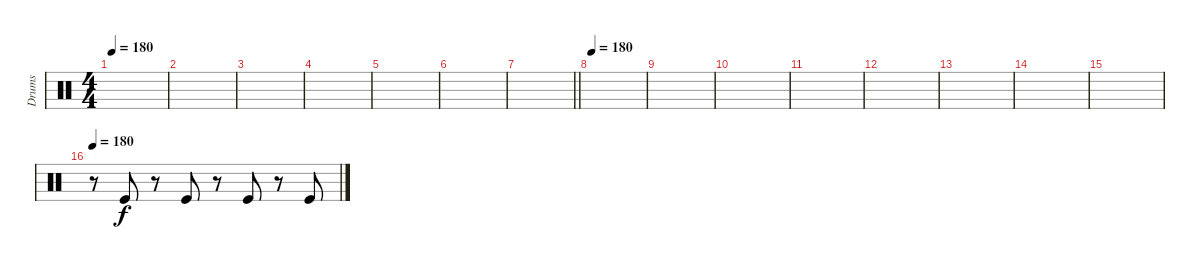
\track ("Drums" "Drums") {instrument percussion}
\staff {score}
\articulation defaults
\ts (4 4)
\tempo 180
\clef neutral
\ks c
|
|
|
|
|
|
\barLineRight lightlight
|
\section ("" "")
\tempo 180
|
|
|
|
|
|
|
|
\tempo 180
r.8{volume 3} "Kick (hit)".8{volume 16} r.8 "Kick (hit)".8 r.8 "Kick (hit)".8 r.8 "Kick (hit)".8
